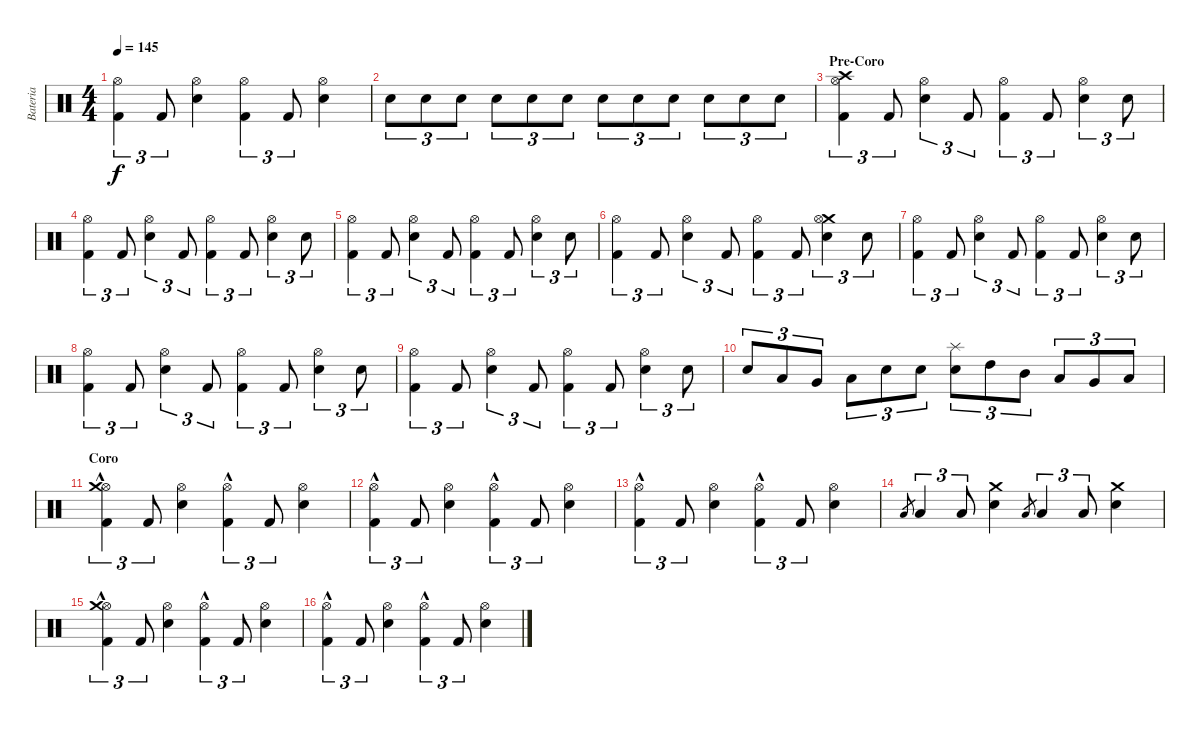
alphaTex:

\track ("Bateria" "Bateria") {instrument percussion}
\staff {score}
\articulation defaults
\ts (4 4)
\tempo 145
\clef neutral
\ks c
("Hi-Hat (open)" "Kick (hit) 2").4{tu (3 2) dy f} "Kick (hit) 2".8{tu (3 2)} ("Hi-Hat (open)" "Snare (hit) 2").4 ("Hi-Hat (open)" "Kick (hit) 2").4{tu (3 2)} "Kick (hit) 2".8{tu (3 2)} ("Hi-Hat (open)" "Snare (hit) 2").4 |
"Snare (hit) 2".8{tu (3 2)} "Snare (hit) 2".8{tu (3 2)} "Snare (hit) 2".8{tu (3 2)} "Snare (hit) 2".8{tu (3 2)} "Snare (hit) 2".8{tu (3 2)} "Snare (hit) 2".8{tu (3 2)} "Snare (hit) 2".8{tu (3 2)} "Snare (hit) 2".8{tu (3 2)} "Snare (hit) 2".8{tu (3 2)} "Snare (hit) 2".8{tu (3 2)} "Snare (hit) 2".8{tu (3 2)} "Snare (hit) 2".8{tu (3 2)} |
\section ("" "Pre-Coro")
("Crash high (hit)" "Hi-Hat (open)" "Kick (hit) 2").4{tu (3 2)} "Kick (hit) 2".8{tu (3 2)} ("Hi-Hat (open)" "Snare (hit) 2").4{tu (3 2)} "Kick (hit) 2".8{tu (3 2)} ("Hi-Hat (open)" "Kick (hit) 2").4{tu (3 2)} "Kick (hit) 2".8{tu (3 2)} ("Hi-Hat (open)" "Snare (hit) 2").4{tu (3 2)} "Snare (hit) 2".8{tu (3 2)} |
("Hi-Hat (open)" "Kick (hit) 2").4{tu (3 2)} "Kick (hit) 2".8{tu (3 2)} ("Hi-Hat (open)" "Snare (hit) 2").4{tu (3 2)} "Kick (hit) 2".8{tu (3 2)} ("Hi-Hat (open)" "Kick (hit) 2").4{tu (3 2)} "Kick (hit) 2".8{tu (3 2)} ("Hi-Hat (open)" "Snare (hit) 2").4{tu (3 2)} "Snare (hit) 2".8{tu (3 2)} |
("Hi-Hat (open)" "Kick (hit) 2").4{tu (3 2)} "Kick (hit) 2".8{tu (3 2)} ("Hi-Hat (open)" "Snare (hit) 2").4{tu (3 2)} "Kick (hit) 2".8{tu (3 2)} ("Hi-Hat (open)" "Kick (hit) 2").4{tu (3 2)} "Kick (hit) 2".8{tu (3 2)} ("Hi-Hat (open)" "Snare (hit) 2").4{tu (3 2)} "Snare (hit) 2".8{tu (3 2)} |
("Hi-Hat (open)" "Kick (hit) 2").4{tu (3 2)} "Kick (hit) 2".8{tu (3 2)} ("Hi-Hat (open)" "Snare (hit) 2").4{tu (3 2)} "Kick (hit) 2".8{tu (3 2)} ("Hi-Hat (open)" "Kick (hit) 2").4{tu (3 2)} "Kick (hit) 2".8{tu (3 2)} ("Crash medium (hit)" "Hi-Hat (open)" "Snare (hit) 2").4{tu (3 2)} "Snare (hit) 2".8{tu (3 2)} |
("Hi-Hat (open)" "Kick (hit) 2").4{tu (3 2)} "Kick (hit) 2".8{tu (3 2)} ("Hi-Hat (open)" "Snare (hit) 2").4{tu (3 2)} "Kick (hit) 2".8{tu (3 2)} ("Hi-Hat (open)" "Kick (hit) 2").4{tu (3 2)} "Kick (hit) 2".8{tu (3 2)} ("Hi-Hat (open)" "Snare (hit) 2").4{tu (3 2)} "Snare (hit) 2".8{tu (3 2)} |
("Hi-Hat (open)" "Kick (hit) 2").4{tu (3 2)} "Kick (hit) 2".8{tu (3 2)} ("Hi-Hat (open)" "Snare (hit) 2").4{tu (3 2)} "Kick (hit) 2".8{tu (3 2)} ("Hi-Hat (open)" "Kick (hit) 2").4{tu (3 2)} "Kick (hit) 2".8{tu (3 2)} ("Hi-Hat (open)" "Snare (hit) 2").4{tu (3 2)} "Snare (hit) 2".8{tu (3 2)} |
("Hi-Hat (open)" "Kick (hit) 2").4{tu (3 2)} "Kick (hit) 2".8{tu (3 2)} ("Hi-Hat (open)" "Snare (hit) 2").4{tu (3 2)} "Kick (hit) 2".8{tu (3 2)} ("Hi-Hat (open)" "Kick (hit) 2").4{tu (3 2)} "Kick (hit) 2".8{tu (3 2)} ("Hi-Hat (open)" "Snare (hit) 2").4{tu (3 2)} "Snare (hit) 2".8{tu (3 2)} |
"Snare (hit) 2".8{tu (3 2)} "Low Tom (hit)".8{tu (3 2)} "Very Low Tom (hit)".8{tu (3 2)} "Low Floor Tom (hit)".8{tu (3 2)} "Snare (hit) 2".8{tu (3 2)} "Snare (hit) 2".8{tu (3 2)} ("Splash (hit)" "Snare (hit) 2").8{tu (3 2)} "High Tom (hit)".8{tu (3 2)} "Mid Tom (hit)".8{tu (3 2)} "Low Tom (hit)".8{tu (3 2)} "Very Low Tom (hit)".8{tu (3 2)} "Low Floor Tom (hit)".8{tu (3 2)} |
\section ("" "Coro")
("Hi-Hat (open)"{hac} "Crash medium (hit)" "Kick (hit) 2").4{tu (3 2)} "Kick (hit) 2".8{tu (3 2)} ("Hi-Hat (open)" "Snare (hit) 2").4 ("Hi-Hat (open)"{hac} "Kick (hit) 2").4{tu (3 2)} "Kick (hit) 2".8{tu (3 2)} ("Hi-Hat (open)" "Snare (hit) 2").4 |
("Hi-Hat (open)"{hac} "Kick (hit) 2").4{tu (3 2)} "Kick (hit) 2".8{tu (3 2)} ("Hi-Hat (open)" "Snare (hit) 2").4 ("Hi-Hat (open)"{hac} "Kick (hit) 2").4{tu (3 2)} "Kick (hit) 2".8{tu (3 2)} ("Hi-Hat (open)" "Snare (hit) 2").4 |
("Hi-Hat (open)"{hac} "Kick (hit) 2").4{tu (3 2)} "Kick (hit) 2".8{tu (3 2)} ("Hi-Hat (open)" "Snare (hit) 2").4 ("Hi-Hat (open)"{hac} "Kick (hit) 2").4{tu (3 2)} "Kick (hit) 2".8{tu (3 2)} ("Hi-Hat (open)" "Snare (hit) 2").4 |
"Low Tom (hit)".8{gr} "Low Tom (hit)".4{tu (3 2)} "Low Tom (hit)".8{tu (3 2)} ("Crash medium (hit)" "Snare (hit) 2").4 "Low Tom (hit)".8{gr} "Low Tom (hit)".4{tu (3 2)} "Low Tom (hit)".8{tu (3 2)} ("Crash medium (hit)" "Snare (hit) 2").4 |
("Hi-Hat (open)"{hac} "Crash medium (hit)" "Kick (hit) 2").4{tu (3 2)} "Kick (hit) 2".8{tu (3 2)} ("Hi-Hat (open)" "Snare (hit) 2").4 ("Hi-Hat (open)"{hac} "Kick (hit) 2").4{tu (3 2)} "Kick (hit) 2".8{tu (3 2)} ("Hi-Hat (open)" "Snare (hit) 2").4 |
("Hi-Hat (open)"{hac} "Kick (hit) 2").4{tu (3 2)} "Kick (hit) 2".8{tu (3 2)} ("Hi-Hat (open)" "Snare (hit) 2").4 ("Hi-Hat (open)"{hac} "Kick (hit) 2").4{tu (3 2)} "Kick (hit) 2".8{tu (3 2)} ("Hi-Hat (open)" "Snare (hit) 2").4
